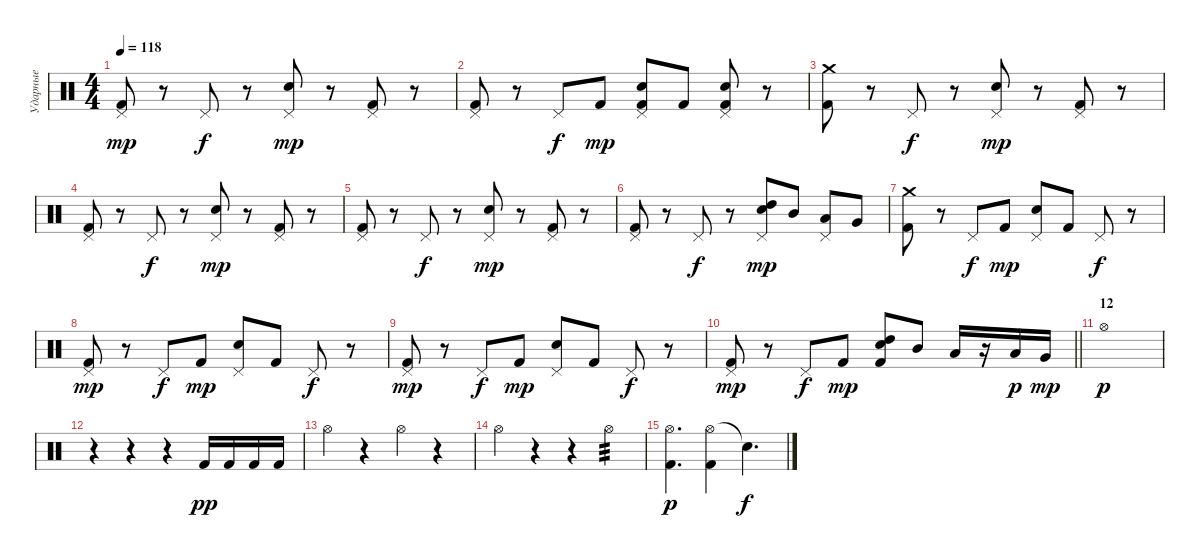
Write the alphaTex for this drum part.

\track ("Ударные" "Ударные") {instrument percussion}
\staff {score}
\articulation defaults
\ts (4 4)
\tempo 118
\clef neutral
\ks c
("Pedal Hi-Hat (hit)" "Kick (hit) 2").8{dy mp} r.8 "Pedal Hi-Hat (hit)".8{dy f} r.8 ("Pedal Hi-Hat (hit)" "Snare (hit) 2").8{dy mp} r.8 ("Pedal Hi-Hat (hit)" "Kick (hit) 2").8 r.8 |
("Pedal Hi-Hat (hit)" "Kick (hit) 2").8 r.8 "Pedal Hi-Hat (hit)".8{dy f} "Kick (hit) 2".8{dy mp} ("Pedal Hi-Hat (hit)" "Snare (hit) 2" "Kick (hit) 2").8 "Kick (hit) 2".8 ("Pedal Hi-Hat (hit)" "Snare (hit) 2" "Kick (hit) 2").8 r.8 |
("Crash medium (hit)" "Kick (hit) 2").8 r.8 "Pedal Hi-Hat (hit)".8{dy f} r.8 ("Pedal Hi-Hat (hit)" "Snare (hit) 2").8{dy mp} r.8 ("Pedal Hi-Hat (hit)" "Kick (hit) 2").8 r.8 |
("Pedal Hi-Hat (hit)" "Kick (hit) 2").8 r.8 "Pedal Hi-Hat (hit)".8{dy f} r.8 ("Pedal Hi-Hat (hit)" "Snare (hit) 2").8{dy mp} r.8 ("Pedal Hi-Hat (hit)" "Kick (hit) 2").8 r.8 |
("Pedal Hi-Hat (hit)" "Kick (hit) 2").8 r.8 "Pedal Hi-Hat (hit)".8{dy f} r.8 ("Pedal Hi-Hat (hit)" "Snare (hit) 2").8{dy mp} r.8 ("Pedal Hi-Hat (hit)" "Kick (hit) 2").8 r.8 |
("Pedal Hi-Hat (hit)" "Kick (hit) 2").8 r.8 "Pedal Hi-Hat (hit)".8{dy f} r.8 ("Pedal Hi-Hat (hit)" "High Tom (hit)" "Snare (hit) 2").8{dy mp} "Mid Tom (hit)".8 ("Pedal Hi-Hat (hit)" "Low Tom (hit)").8 "Very Low Tom (hit)".8 |
("Crash medium (hit)" "Kick (hit) 2").8 r.8 "Pedal Hi-Hat (hit)".8{dy f} "Kick (hit) 2".8{dy mp} ("Pedal Hi-Hat (hit)" "Snare (hit) 2").8 "Kick (hit) 2".8 "Pedal Hi-Hat (hit)".8{dy f} r.8 |
("Pedal Hi-Hat (hit)" "Kick (hit) 2").8{dy mp} r.8 "Pedal Hi-Hat (hit)".8{dy f} "Kick (hit) 2".8{dy mp} ("Pedal Hi-Hat (hit)" "Snare (hit) 2").8 "Kick (hit) 2".8 "Pedal Hi-Hat (hit)".8{dy f} r.8 |
("Pedal Hi-Hat (hit)" "Kick (hit) 2").8{dy mp} r.8 "Pedal Hi-Hat (hit)".8{dy f} "Kick (hit) 2".8{dy mp} ("Pedal Hi-Hat (hit)" "Snare (hit) 2").8 "Kick (hit) 2".8 "Pedal Hi-Hat (hit)".8{dy f} r.8 |
\barLineRight lightlight
("Pedal Hi-Hat (hit)" "Kick (hit) 2").8{dy mp} r.8 "Pedal Hi-Hat (hit)".8{dy f} "Kick (hit) 2".8{dy mp} ("High Tom (hit)" "Snare (hit) 2" "Kick (hit) 2").8 "Mid Tom (hit)".8 "Low Tom (hit)".16 r.16 "Low Tom (hit)".16{dy p} "Very Low Tom (hit)".16{dy mp} |
\section ("" "12")
"Hi-Hat (open)".1{dy p} |
r.4 r.4 r.4 "Kick (hit) 2".16{dy pp} "Kick (hit) 2".16 "Kick (hit) 2".16 "Kick (hit) 2".16 |
"Hi-Hat (open)".4 r.4 "Hi-Hat (open)".4 r.4 |
"Hi-Hat (open)".4 r.4 r.4 "Hi-Hat (open)".4{tp 3} |
("Hi-Hat (open)" "Kick (hit) 2").4{d dy p} ("Hi-Hat (open)" "Kick (hit) 2").4 "Snare (hit)"{t}.4{d dy f}
